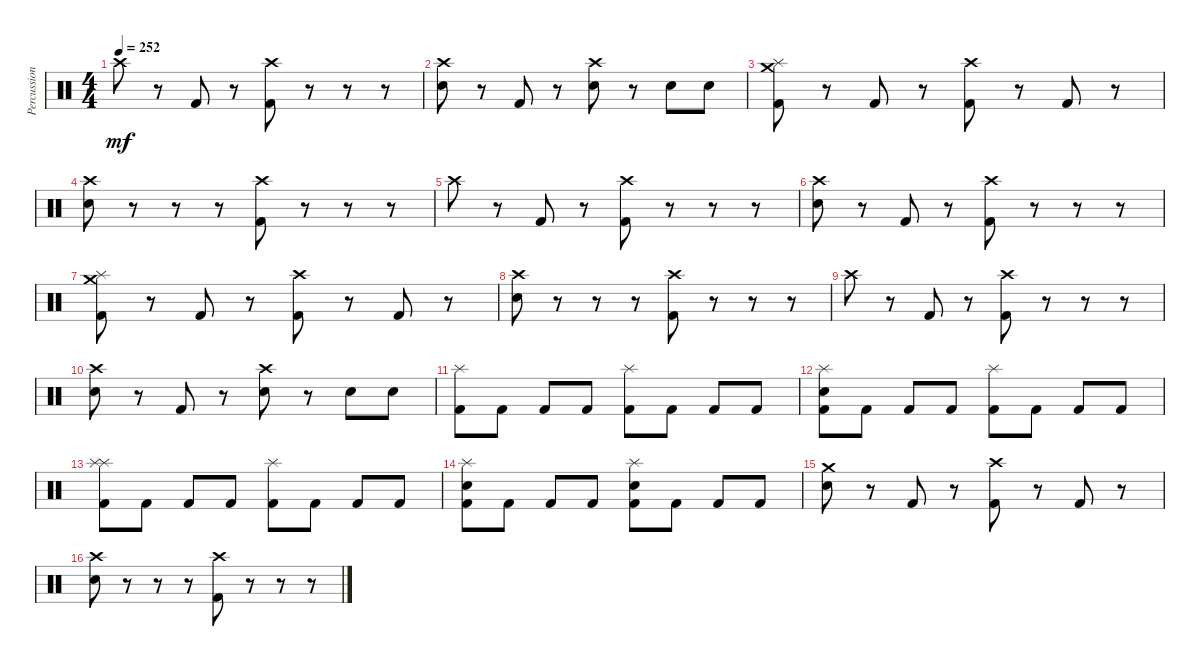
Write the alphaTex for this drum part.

\track ("Percussion" "Percussion") {instrument percussion}
\staff {score}
\articulation defaults
\ts (4 4)
\tempo 252
\clef neutral
\ks c "Crash high (hit)".8{dy mf}
r.8 "Kick (hit) 2".8 r.8 ("Kick (hit) 2" "Crash high (hit)").8 r.8 r.8 r.8 |
("Crash high (hit)" "Electric Snare (hit)").8 r.8 "Kick (hit) 2".8 r.8 ("Crash high (hit)" "Electric Snare (hit)").8 r.8 "Electric Snare (hit)".8 "Electric Snare (hit)".8 |
("Kick (hit) 2" "Crash medium (hit)" "Splash (hit)").8 r.8 "Kick (hit) 2".8 r.8 ("Kick (hit) 2" "Crash high (hit)").8 r.8 "Kick (hit) 2".8 r.8 |
("Electric Snare (hit)" "Crash high (hit)").8 r.8 r.8 r.8 ("Kick (hit) 2" "Crash high (hit)").8 r.8 r.8 r.8 |
"Crash high (hit)".8 r.8 "Kick (hit) 2".8 r.8 ("Kick (hit) 2" "Crash high (hit)").8 r.8 r.8 r.8 |
("Electric Snare (hit)" "Crash high (hit)").8 r.8 "Kick (hit) 2".8 r.8 ("Kick (hit) 2" "Crash high (hit)").8 r.8 r.8 r.8 |
("Splash (hit)" "Crash medium (hit)" "Kick (hit) 2").8 r.8 "Kick (hit) 2".8 r.8 ("Kick (hit) 2" "Crash high (hit)").8 r.8 "Kick (hit) 2".8 r.8 |
("Electric Snare (hit)" "Crash high (hit)").8 r.8 r.8 r.8 ("Kick (hit) 2" "Crash high (hit)").8 r.8 r.8 r.8 |
"Crash high (hit)".8 r.8 "Kick (hit) 2".8 r.8 ("Kick (hit) 2" "Crash high (hit)").8 r.8 r.8 r.8 |
("Electric Snare (hit)" "Crash high (hit)").8 r.8 "Kick (hit) 2".8 r.8 ("Electric Snare (hit)" "Crash high (hit)").8 r.8 "Electric Snare (hit)".8 "Snare (hit) 2".8 |
("Kick (hit) 2" "Splash (hit)").8 "Kick (hit) 2".8 "Kick (hit) 2".8 "Kick (hit) 2".8 ("Kick (hit) 2" "Splash (hit)").8 "Kick (hit) 2".8 "Kick (hit) 2".8 "Kick (hit) 2".8 |
("Kick (hit) 2" "Electric Snare (hit)" "Splash (hit)").8 "Kick (hit) 2".8 "Kick (hit) 2".8 "Kick (hit) 2".8 ("Kick (hit) 2" "Splash (hit)").8 "Kick (hit) 2".8 "Kick (hit) 2".8 "Kick (hit) 2".8 |
("Kick (hit) 2" "Splash (hit)" "Splash (hit)").8 "Kick (hit) 2".8 "Kick (hit) 2".8 "Kick (hit) 2".8 ("Kick (hit) 2" "Splash (hit)").8 "Kick (hit) 2".8 "Kick (hit) 2".8 "Kick (hit) 2".8 |
("Kick (hit) 2" "Electric Snare (hit)" "Splash (hit)").8 "Kick (hit) 2".8 "Kick (hit) 2".8 "Kick (hit) 2".8 ("Kick (hit) 2" "Splash (hit)" "Electric Snare (hit)").8 "Kick (hit) 2".8 "Kick (hit) 2".8 "Kick (hit) 2".8 |
("Crash medium (hit)" "Snare (hit)").8 r.8 "Kick (hit) 2".8 r.8 ("Kick (hit) 2" "Crash high (hit)").8 r.8 "Kick (hit) 2".8 r.8 |
("Electric Snare (hit)" "Crash high (hit)").8 r.8 r.8 r.8 ("Kick (hit) 2" "Crash high (hit)").8 r.8 r.8 r.8
